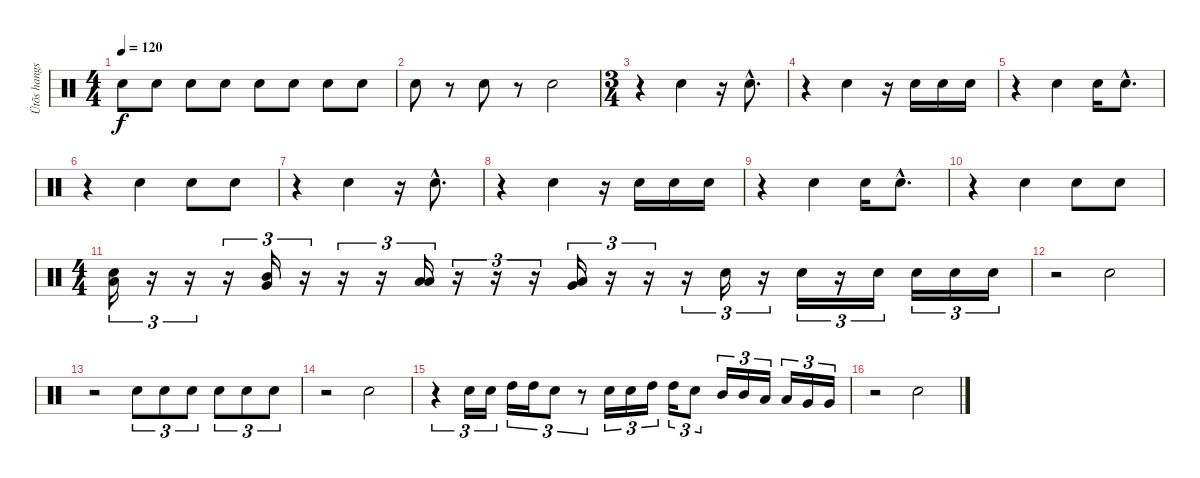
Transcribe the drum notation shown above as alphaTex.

\track ("Ütõs hangszer" "Ütõs hangs") {instrument percussion}
\staff {score}
\articulation defaults
\ts (4 4)
\tempo 120
\clef neutral
\ks c "Electric Snare (hit)".8{dy f} "Electric Snare (hit)".8 "Electric Snare (hit)".8 "Electric Snare (hit)".8 "Electric Snare (hit)".8 "Electric Snare (hit)".8 "Electric Snare (hit)".8 "Electric Snare (hit)".8
|
"Electric Snare (hit)".8 r.8 "Electric Snare (hit)".8 r.8 "Electric Snare (hit)".2 |
\ts (3 4)
r.4 "Electric Snare (hit)".4 r.16 "Electric Snare (hit)"{hac}.8{d} |
r.4 "Electric Snare (hit)".4 r.16 "Electric Snare (hit)".16 "Electric Snare (hit)".16 "Electric Snare (hit)".16 |
r.4 "Electric Snare (hit)".4 "Electric Snare (hit)".16 "Electric Snare (hit)"{hac}.8{d} |
r.4 "Electric Snare (hit)".4 "Electric Snare (hit)".8 "Electric Snare (hit)".8 |
r.4 "Electric Snare (hit)".4 r.16 "Electric Snare (hit)"{hac}.8{d} |
r.4 "Electric Snare (hit)".4 r.16 "Electric Snare (hit)".16 "Electric Snare (hit)".16 "Electric Snare (hit)".16 |
r.4 "Electric Snare (hit)".4 "Electric Snare (hit)".16 "Electric Snare (hit)"{hac}.8{d} |
r.4 "Electric Snare (hit)".4 "Electric Snare (hit)".8 "Electric Snare (hit)".8 |
\ts (4 4)
("Low Tom (hit)" "Electric Snare (hit)").16{tu (3 2)} r.16{tu (3 2)} r.16{tu (3 2)} r.16{tu (3 2)} ("Very Low Tom (hit)" "Mid Tom (hit)").16{tu (3 2)} r.16{tu (3 2)} r.16{tu (3 2)} r.16{tu (3 2)} ("Low Floor Tom (hit)" "Low Tom (hit)").16{tu (3 2)} r.16{tu (3 2)} r.16{tu (3 2)} r.16{tu (3 2)} ("Low Floor Tom (hit)" "Very Low Tom (hit)").16{tu (3 2)} r.16{tu (3 2)} r.16{tu (3 2)} r.16{tu (3 2)} "Electric Snare (hit)".16{tu (3 2)} r.16{tu (3 2)} "Electric Snare (hit)".16{tu (3 2)} r.16{tu (3 2)} "Electric Snare (hit)".16{tu (3 2)} "Electric Snare (hit)".16{tu (3 2)} "Electric Snare (hit)".16{tu (3 2)} "Electric Snare (hit)".16{tu (3 2)} |
r.2 "Electric Snare (hit)".2 |
r.2 "Electric Snare (hit)".8{tu (3 2)} "Electric Snare (hit)".8{tu (3 2)} "Electric Snare (hit)".8{tu (3 2)} "Electric Snare (hit)".8{tu (3 2)} "Electric Snare (hit)".8{tu (3 2)} "Electric Snare (hit)".8{tu (3 2)} |
r.2 "Electric Snare (hit)".2 |
r.4{tu (3 2)} "Electric Snare (hit)".16{tu (3 2)} "Electric Snare (hit)".16{tu (3 2)} "High Tom (hit)".16{tu (3 2)} "High Tom (hit)".16{tu (3 2)} "Electric Snare (hit)".8{tu (3 2)} r.8{tu (3 2)} "Electric Snare (hit)".16{tu (3 2)} "Electric Snare (hit)".16{tu (3 2)} "High Tom (hit)".16{tu (3 2)} "High Tom (hit)".16{tu (3 2)} "Electric Snare (hit)".8{tu (3 2)} "Mid Tom (hit)".16{tu (3 2)} "Mid Tom (hit)".16{tu (3 2)} "Low Tom (hit)".16{tu (3 2)} "Low Tom (hit)".16{tu (3 2)} "Very Low Tom (hit)".16{tu (3 2)} "Very Low Tom (hit)".16{tu (3 2)} |
r.2 "Electric Snare (hit)".2
